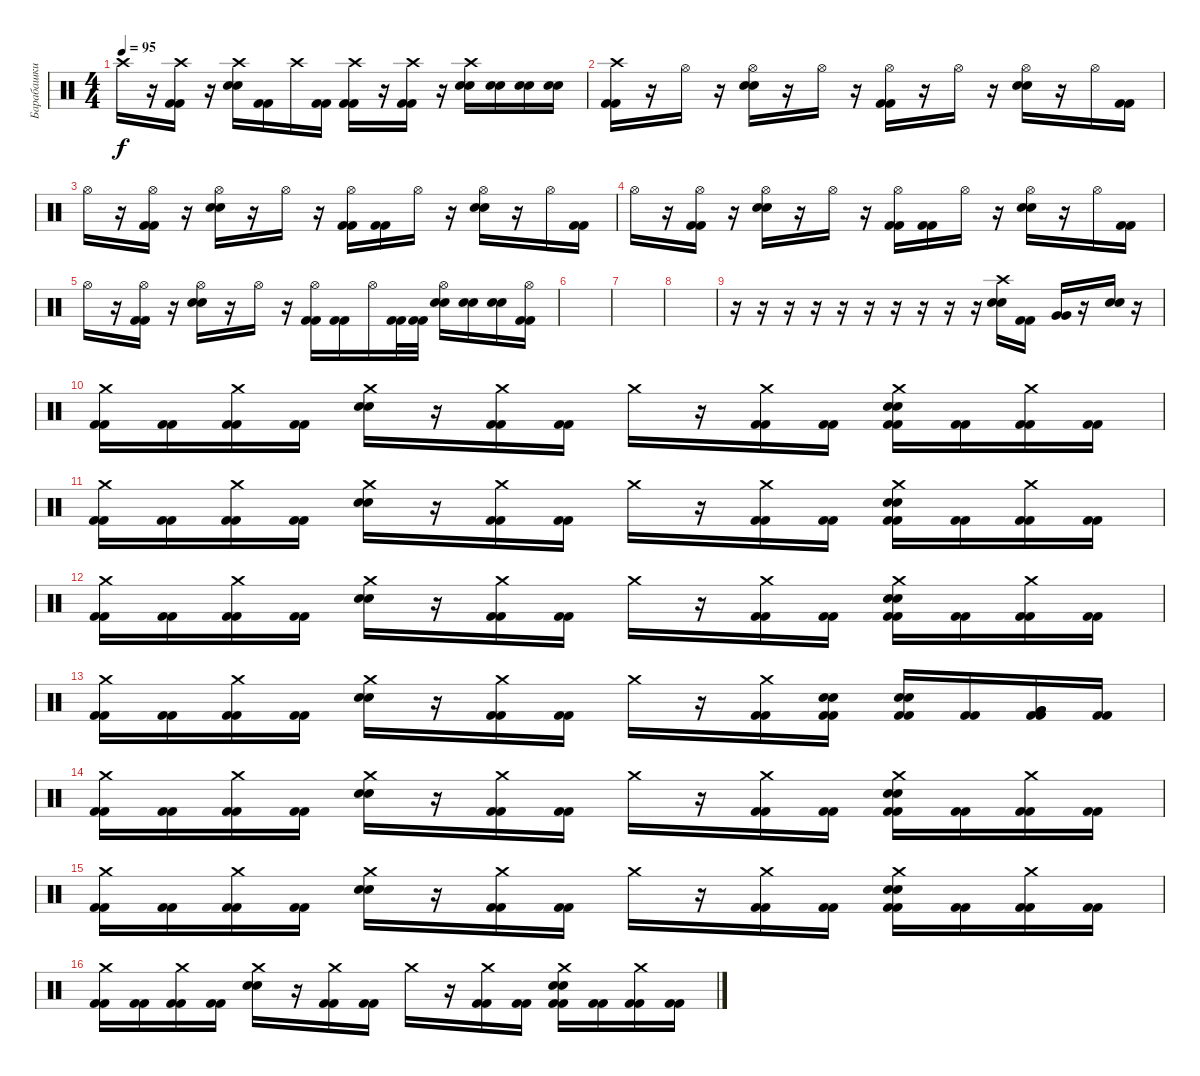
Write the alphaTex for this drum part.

\track ("Барабашки" "Барабашки") {instrument percussion}
\staff {score}
\articulation defaults
\ts (4 4)
\tempo 95
\clef neutral
\ks c "Crash high (hit)".16{dy f}
r.16 ("Crash high (hit)" "Kick (hit) 2" "Kick (hit) 2").16 r.16 ("Crash high (hit)" "Electric Snare (hit)" "Electric Snare (hit)").16 ("Kick (hit) 2" "Kick (hit) 2").16 "Crash high (hit)".16 ("Kick (hit) 2" "Kick (hit) 2").16 ("Crash high (hit)" "Kick (hit) 2" "Kick (hit) 2").16 r.16 ("Crash high (hit)" "Kick (hit) 2" "Kick (hit) 2").16 r.16 ("Crash high (hit)" "Electric Snare (hit)" "Electric Snare (hit)").16 ("Electric Snare (hit)" "Electric Snare (hit)").16 ("Electric Snare (hit)" "Electric Snare (hit)").16 ("Electric Snare (hit)" "Electric Snare (hit)").16 |
("Crash high (hit)" "Kick (hit) 2" "Kick (hit) 2").16 r.16 "Hi-Hat (open)".16 r.16 ("Hi-Hat (open)" "Electric Snare (hit)" "Electric Snare (hit)").16 r.16 "Hi-Hat (open)".16 r.16 ("Hi-Hat (open)" "Kick (hit) 2" "Kick (hit) 2").16 r.16 "Hi-Hat (open)".16 r.16 ("Hi-Hat (open)" "Electric Snare (hit)" "Electric Snare (hit)").16 r.16 "Hi-Hat (open)".16 ("Kick (hit) 2" "Kick (hit) 2").16 |
"Hi-Hat (open)".16 r.16 ("Hi-Hat (open)" "Kick (hit) 2" "Kick (hit) 2").16 r.16 ("Hi-Hat (open)" "Electric Snare (hit)" "Electric Snare (hit)").16 r.16 "Hi-Hat (open)".16 r.16 ("Hi-Hat (open)" "Kick (hit) 2" "Kick (hit) 2").16 ("Kick (hit) 2" "Kick (hit) 2").16 "Hi-Hat (open)".16 r.16 ("Hi-Hat (open)" "Electric Snare (hit)" "Electric Snare (hit)").16 r.16 "Hi-Hat (open)".16 ("Kick (hit) 2" "Kick (hit) 2").16 |
"Hi-Hat (open)".16 r.16 ("Hi-Hat (open)" "Kick (hit) 2" "Kick (hit) 2").16 r.16 ("Hi-Hat (open)" "Electric Snare (hit)" "Electric Snare (hit)").16 r.16 "Hi-Hat (open)".16 r.16 ("Hi-Hat (open)" "Kick (hit) 2" "Kick (hit) 2").16 ("Kick (hit) 2" "Kick (hit) 2").16 "Hi-Hat (open)".16 r.16 ("Hi-Hat (open)" "Electric Snare (hit)" "Electric Snare (hit)").16 r.16 "Hi-Hat (open)".16 ("Kick (hit) 2" "Kick (hit) 2").16 |
"Hi-Hat (open)".16 r.16 ("Hi-Hat (open)" "Kick (hit) 2" "Kick (hit) 2").16 r.16 ("Hi-Hat (open)" "Electric Snare (hit)" "Electric Snare (hit)").16 r.16 "Hi-Hat (open)".16 r.16 ("Hi-Hat (open)" "Kick (hit) 2" "Kick (hit) 2").16 ("Kick (hit) 2" "Kick (hit) 2").16 "Hi-Hat (open)".16 ("Kick (hit) 2" "Kick (hit) 2").32 ("Kick (hit) 2" "Kick (hit) 2").32 ("Hi-Hat (open)" "Electric Snare (hit)" "Electric Snare (hit)").16 ("Electric Snare (hit)" "Electric Snare (hit)").16 ("Electric Snare (hit)" "Electric Snare (hit)").16 ("Hi-Hat (open)" "Kick (hit) 2" "Kick (hit) 2").16 |
|
|
|
r.16 r.16 r.16 r.16 r.16 r.16 r.16 r.16 r.16 r.16 ("Crash high (hit)" "Electric Snare (hit)" "Electric Snare (hit)").16 ("Kick (hit) 2" "Kick (hit) 2").16 ("Very Low Tom (hit)" "Very Low Tom (hit)").16 r.16 ("Electric Snare (hit)" "Electric Snare (hit)").16 r.16 |
("Crash medium (hit)" "Kick (hit) 2" "Kick (hit) 2").16 ("Kick (hit) 2" "Kick (hit) 2").16 ("Crash medium (hit)" "Kick (hit) 2" "Kick (hit) 2").16 ("Kick (hit) 2" "Kick (hit) 2").16 ("Crash medium (hit)" "Electric Snare (hit)" "Electric Snare (hit)").16 r.16 ("Crash medium (hit)" "Kick (hit) 2" "Kick (hit) 2").16 ("Kick (hit) 2" "Kick (hit) 2").16 "Crash medium (hit)".16 r.16 ("Crash medium (hit)" "Kick (hit) 2" "Kick (hit) 2").16 ("Kick (hit) 2" "Kick (hit) 2").16 ("Crash medium (hit)" "Electric Snare (hit)" "Electric Snare (hit)" "Kick (hit) 2" "Kick (hit) 2").16 ("Kick (hit) 2" "Kick (hit) 2").16 ("Crash medium (hit)" "Kick (hit) 2" "Kick (hit) 2").16 ("Kick (hit) 2" "Kick (hit) 2").16 |
("Crash medium (hit)" "Kick (hit) 2" "Kick (hit) 2").16 ("Kick (hit) 2" "Kick (hit) 2").16 ("Crash medium (hit)" "Kick (hit) 2" "Kick (hit) 2").16 ("Kick (hit) 2" "Kick (hit) 2").16 ("Crash medium (hit)" "Electric Snare (hit)" "Electric Snare (hit)").16 r.16 ("Crash medium (hit)" "Kick (hit) 2" "Kick (hit) 2").16 ("Kick (hit) 2" "Kick (hit) 2").16 "Crash medium (hit)".16 r.16 ("Crash medium (hit)" "Kick (hit) 2" "Kick (hit) 2").16 ("Kick (hit) 2" "Kick (hit) 2").16 ("Crash medium (hit)" "Electric Snare (hit)" "Electric Snare (hit)" "Kick (hit) 2" "Kick (hit) 2").16 ("Kick (hit) 2" "Kick (hit) 2").16 ("Crash medium (hit)" "Kick (hit) 2" "Kick (hit) 2").16 ("Kick (hit) 2" "Kick (hit) 2").16 |
("Crash medium (hit)" "Kick (hit) 2" "Kick (hit) 2").16 ("Kick (hit) 2" "Kick (hit) 2").16 ("Crash medium (hit)" "Kick (hit) 2" "Kick (hit) 2").16 ("Kick (hit) 2" "Kick (hit) 2").16 ("Crash medium (hit)" "Electric Snare (hit)" "Electric Snare (hit)").16 r.16 ("Crash medium (hit)" "Kick (hit) 2" "Kick (hit) 2").16 ("Kick (hit) 2" "Kick (hit) 2").16 "Crash medium (hit)".16 r.16 ("Crash medium (hit)" "Kick (hit) 2" "Kick (hit) 2").16 ("Kick (hit) 2" "Kick (hit) 2").16 ("Crash medium (hit)" "Electric Snare (hit)" "Electric Snare (hit)" "Kick (hit) 2" "Kick (hit) 2").16 ("Kick (hit) 2" "Kick (hit) 2").16 ("Crash medium (hit)" "Kick (hit) 2" "Kick (hit) 2").16 ("Kick (hit) 2" "Kick (hit) 2").16 |
("Crash medium (hit)" "Kick (hit) 2" "Kick (hit) 2").16 ("Kick (hit) 2" "Kick (hit) 2").16 ("Crash medium (hit)" "Kick (hit) 2" "Kick (hit) 2").16 ("Kick (hit) 2" "Kick (hit) 2").16 ("Crash medium (hit)" "Electric Snare (hit)" "Electric Snare (hit)").16 r.16 ("Crash medium (hit)" "Kick (hit) 2" "Kick (hit) 2").16 ("Kick (hit) 2" "Kick (hit) 2").16 "Crash medium (hit)".16 r.16 ("Crash medium (hit)" "Kick (hit) 2" "Kick (hit) 2").16 ("Electric Snare (hit)" "Electric Snare (hit)" "Kick (hit) 2" "Kick (hit) 2").16 ("Electric Snare (hit)" "Electric Snare (hit)" "Kick (hit) 2" "Kick (hit) 2").16 ("Kick (hit) 2" "Kick (hit) 2").16 ("Very Low Tom (hit)" "Very Low Tom (hit)" "Kick (hit) 2" "Kick (hit) 2").16 ("Kick (hit) 2" "Kick (hit) 2").16 |
("Crash medium (hit)" "Kick (hit) 2" "Kick (hit) 2").16 ("Kick (hit) 2" "Kick (hit) 2").16 ("Crash medium (hit)" "Kick (hit) 2" "Kick (hit) 2").16 ("Kick (hit) 2" "Kick (hit) 2").16 ("Crash medium (hit)" "Electric Snare (hit)" "Electric Snare (hit)").16 r.16 ("Crash medium (hit)" "Kick (hit) 2" "Kick (hit) 2").16 ("Kick (hit) 2" "Kick (hit) 2").16 "Crash medium (hit)".16 r.16 ("Crash medium (hit)" "Kick (hit) 2" "Kick (hit) 2").16 ("Kick (hit) 2" "Kick (hit) 2").16 ("Crash medium (hit)" "Electric Snare (hit)" "Electric Snare (hit)" "Kick (hit) 2" "Kick (hit) 2").16 ("Kick (hit) 2" "Kick (hit) 2").16 ("Crash medium (hit)" "Kick (hit) 2" "Kick (hit) 2").16 ("Kick (hit) 2" "Kick (hit) 2").16 |
("Crash medium (hit)" "Kick (hit) 2" "Kick (hit) 2").16 ("Kick (hit) 2" "Kick (hit) 2").16 ("Crash medium (hit)" "Kick (hit) 2" "Kick (hit) 2").16 ("Kick (hit) 2" "Kick (hit) 2").16 ("Crash medium (hit)" "Electric Snare (hit)" "Electric Snare (hit)").16 r.16 ("Crash medium (hit)" "Kick (hit) 2" "Kick (hit) 2").16 ("Kick (hit) 2" "Kick (hit) 2").16 "Crash medium (hit)".16 r.16 ("Crash medium (hit)" "Kick (hit) 2" "Kick (hit) 2").16 ("Kick (hit) 2" "Kick (hit) 2").16 ("Crash medium (hit)" "Electric Snare (hit)" "Electric Snare (hit)" "Kick (hit) 2" "Kick (hit) 2").16 ("Kick (hit) 2" "Kick (hit) 2").16 ("Crash medium (hit)" "Kick (hit) 2" "Kick (hit) 2").16 ("Kick (hit) 2" "Kick (hit) 2").16 |
("Crash medium (hit)" "Kick (hit) 2" "Kick (hit) 2").16 ("Kick (hit) 2" "Kick (hit) 2").16 ("Crash medium (hit)" "Kick (hit) 2" "Kick (hit) 2").16 ("Kick (hit) 2" "Kick (hit) 2").16 ("Crash medium (hit)" "Electric Snare (hit)" "Electric Snare (hit)").16 r.16 ("Crash medium (hit)" "Kick (hit) 2" "Kick (hit) 2").16 ("Kick (hit) 2" "Kick (hit) 2").16 "Crash medium (hit)".16 r.16 ("Crash medium (hit)" "Kick (hit) 2" "Kick (hit) 2").16 ("Kick (hit) 2" "Kick (hit) 2").16 ("Crash medium (hit)" "Electric Snare (hit)" "Electric Snare (hit)" "Kick (hit) 2" "Kick (hit) 2").16 ("Kick (hit) 2" "Kick (hit) 2").16 ("Crash medium (hit)" "Kick (hit) 2" "Kick (hit) 2").16 ("Kick (hit) 2" "Kick (hit) 2").16
